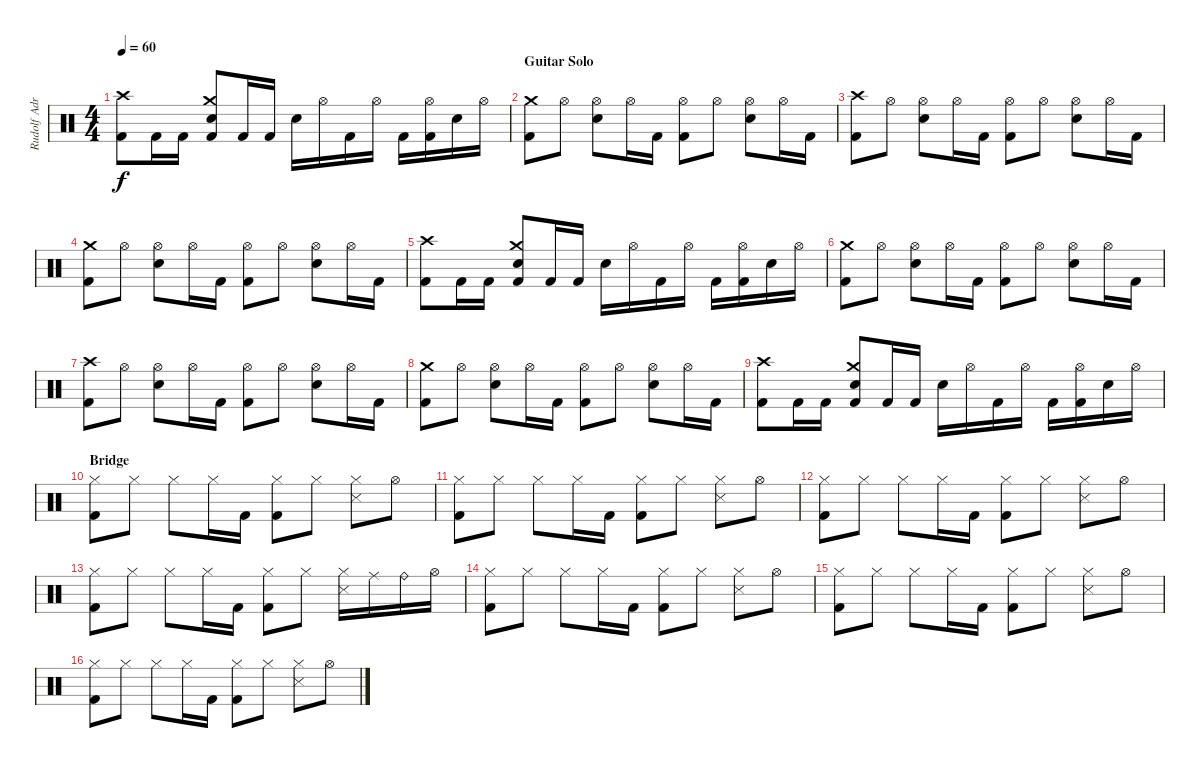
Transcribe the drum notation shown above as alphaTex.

\track ("Rudolf Adrianus Jolie" "Rudolf Adr") {instrument percussion}
\staff {score}
\articulation defaults
\ts (4 4)
\tempo 60
\clef neutral
\ks c
("Crash high (hit)" "Kick (hit) 2").8{dy f} "Kick (hit) 2".16 "Kick (hit) 2".16 ("Crash medium (hit)" "Snare (hit) 2" "Kick (hit) 2").8 "Kick (hit) 2".16 "Kick (hit) 2".16 "Snare (hit) 2".16 "Hi-Hat (open)".16 "Kick (hit) 2".16 "Hi-Hat (open)".16 "Kick (hit) 2".16 ("Hi-Hat (open)" "Kick (hit) 2").16 "Snare (hit) 2".16 "Hi-Hat (open)".16 |
\section ("" "Guitar Solo")
("Crash medium (hit)" "Kick (hit) 2").8 "Hi-Hat (open)".8 ("Hi-Hat (open)" "Snare (hit) 2").8 "Hi-Hat (open)".16 "Kick (hit) 2".16 ("Hi-Hat (open)" "Kick (hit) 2").8 "Hi-Hat (open)".8 ("Hi-Hat (open)" "Snare (hit) 2").8 "Hi-Hat (open)".16 "Kick (hit) 2".16 |
("Crash high (hit)" "Kick (hit) 2").8 "Hi-Hat (open)".8 ("Hi-Hat (open)" "Snare (hit) 2").8 "Hi-Hat (open)".16 "Kick (hit) 2".16 ("Hi-Hat (open)" "Kick (hit) 2").8 "Hi-Hat (open)".8 ("Hi-Hat (open)" "Snare (hit) 2").8 "Hi-Hat (open)".16 "Kick (hit) 2".16 |
("Crash medium (hit)" "Kick (hit) 2").8 "Hi-Hat (open)".8 ("Hi-Hat (open)" "Snare (hit) 2").8 "Hi-Hat (open)".16 "Kick (hit) 2".16 ("Hi-Hat (open)" "Kick (hit) 2").8 "Hi-Hat (open)".8 ("Hi-Hat (open)" "Snare (hit) 2").8 "Hi-Hat (open)".16 "Kick (hit) 2".16 |
("Crash high (hit)" "Kick (hit) 2").8 "Kick (hit) 2".16 "Kick (hit) 2".16 ("Crash medium (hit)" "Snare (hit) 2" "Kick (hit) 2").8 "Kick (hit) 2".16 "Kick (hit) 2".16 "Snare (hit) 2".16 "Hi-Hat (open)".16 "Kick (hit) 2".16 "Hi-Hat (open)".16 "Kick (hit) 2".16 ("Hi-Hat (open)" "Kick (hit) 2").16 "Snare (hit) 2".16 "Hi-Hat (open)".16 |
("Crash medium (hit)" "Kick (hit) 2").8 "Hi-Hat (open)".8 ("Hi-Hat (open)" "Snare (hit) 2").8 "Hi-Hat (open)".16 "Kick (hit) 2".16 ("Hi-Hat (open)" "Kick (hit) 2").8 "Hi-Hat (open)".8 ("Hi-Hat (open)" "Snare (hit) 2").8 "Hi-Hat (open)".16 "Kick (hit) 2".16 |
("Crash high (hit)" "Kick (hit) 2").8 "Hi-Hat (open)".8 ("Hi-Hat (open)" "Snare (hit) 2").8 "Hi-Hat (open)".16 "Kick (hit) 2".16 ("Hi-Hat (open)" "Kick (hit) 2").8 "Hi-Hat (open)".8 ("Hi-Hat (open)" "Snare (hit) 2").8 "Hi-Hat (open)".16 "Kick (hit) 2".16 |
("Crash medium (hit)" "Kick (hit) 2").8 "Hi-Hat (open)".8 ("Hi-Hat (open)" "Snare (hit) 2").8 "Hi-Hat (open)".16 "Kick (hit) 2".16 ("Hi-Hat (open)" "Kick (hit) 2").8 "Hi-Hat (open)".8 ("Hi-Hat (open)" "Snare (hit) 2").8 "Hi-Hat (open)".16 "Kick (hit) 2".16 |
("Crash high (hit)" "Kick (hit) 2").8 "Kick (hit) 2".16 "Kick (hit) 2".16 ("Crash medium (hit)" "Snare (hit) 2" "Kick (hit) 2").8 "Kick (hit) 2".16 "Kick (hit) 2".16 "Snare (hit) 2".16 "Hi-Hat (open)".16 "Kick (hit) 2".16 "Hi-Hat (open)".16 "Kick (hit) 2".16 ("Hi-Hat (open)" "Kick (hit) 2").16 "Snare (hit) 2".16 "Hi-Hat (open)".16 |
\section ("" "Bridge")
("Hi-Hat (closed)" "Kick (hit) 2").8 "Hi-Hat (closed)".8 "Hi-Hat (closed)".8 "Hi-Hat (closed)".16 "Kick (hit) 2".16 ("Hi-Hat (closed)" "Kick (hit) 2").8 "Hi-Hat (closed)".8 ("Hi-Hat (closed)" "Snare (side stick) 3").8 "Hi-Hat (open)".8 |
("Hi-Hat (closed)" "Kick (hit) 2").8 "Hi-Hat (closed)".8 "Hi-Hat (closed)".8 "Hi-Hat (closed)".16 "Kick (hit) 2".16 ("Hi-Hat (closed)" "Kick (hit) 2").8 "Hi-Hat (closed)".8 ("Hi-Hat (closed)" "Snare (side stick) 3").8 "Hi-Hat (open)".8 |
("Hi-Hat (closed)" "Kick (hit) 2").8 "Hi-Hat (closed)".8 "Hi-Hat (closed)".8 "Hi-Hat (closed)".16 "Kick (hit) 2".16 ("Hi-Hat (closed)" "Kick (hit) 2").8 "Hi-Hat (closed)".8 ("Hi-Hat (closed)" "Snare (side stick) 3").8 "Hi-Hat (open)".8 |
("Hi-Hat (closed)" "Kick (hit) 2").8 "Hi-Hat (closed)".8 "Hi-Hat (closed)".8 "Hi-Hat (closed)".16 "Kick (hit) 2".16 ("Hi-Hat (closed)" "Kick (hit) 2").8 "Hi-Hat (closed)".8 ("Hi-Hat (closed)" "Snare (side stick) 3").16 "Ride (middle)".16 "Ride (bell)".16 "Hi-Hat (open)".16 |
("Hi-Hat (closed)" "Kick (hit) 2").8 "Hi-Hat (closed)".8 "Hi-Hat (closed)".8 "Hi-Hat (closed)".16 "Kick (hit) 2".16 ("Hi-Hat (closed)" "Kick (hit) 2").8 "Hi-Hat (closed)".8 ("Hi-Hat (closed)" "Snare (side stick) 3").8 "Hi-Hat (open)".8 |
("Hi-Hat (closed)" "Kick (hit) 2").8 "Hi-Hat (closed)".8 "Hi-Hat (closed)".8 "Hi-Hat (closed)".16 "Kick (hit) 2".16 ("Hi-Hat (closed)" "Kick (hit) 2").8 "Hi-Hat (closed)".8 ("Hi-Hat (closed)" "Snare (side stick) 3").8 "Hi-Hat (open)".8 |
("Hi-Hat (closed)" "Kick (hit) 2").8 "Hi-Hat (closed)".8 "Hi-Hat (closed)".8 "Hi-Hat (closed)".16 "Kick (hit) 2".16 ("Hi-Hat (closed)" "Kick (hit) 2").8 "Hi-Hat (closed)".8 ("Hi-Hat (closed)" "Snare (side stick) 3").8 "Hi-Hat (open)".8
